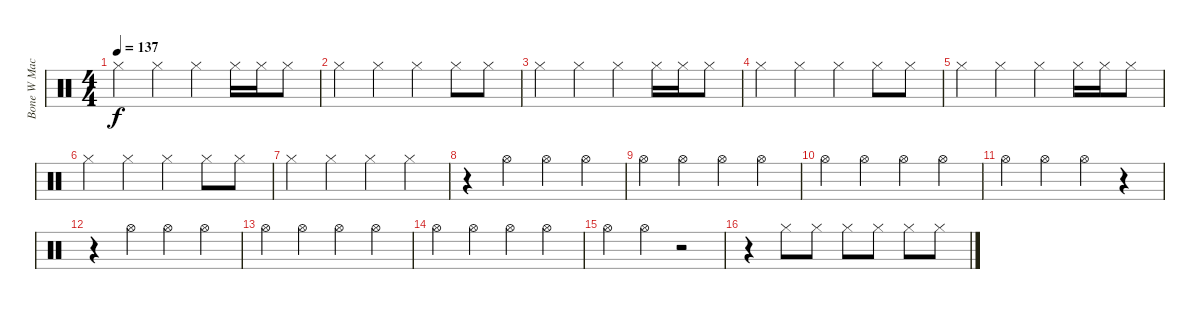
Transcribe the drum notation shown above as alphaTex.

\track ("Bone W Machine Cimbals" "Bone W Mac") {instrument percussion}
\staff {score}
\articulation defaults
\ts (4 4)
\tempo 137
\clef neutral
\ks c "Hi-Hat (closed)".4{dy f} "Hi-Hat (closed)".4 "Hi-Hat (closed)".4 "Hi-Hat (closed)".16 "Hi-Hat (closed)".16 "Hi-Hat (closed)".8
|
"Hi-Hat (closed)".4 "Hi-Hat (closed)".4 "Hi-Hat (closed)".4 "Hi-Hat (closed)".8 "Hi-Hat (closed)".8 |
"Hi-Hat (closed)".4 "Hi-Hat (closed)".4 "Hi-Hat (closed)".4 "Hi-Hat (closed)".16 "Hi-Hat (closed)".16 "Hi-Hat (closed)".8 |
"Hi-Hat (closed)".4 "Hi-Hat (closed)".4 "Hi-Hat (closed)".4 "Hi-Hat (closed)".8 "Hi-Hat (closed)".8 |
"Hi-Hat (closed)".4 "Hi-Hat (closed)".4 "Hi-Hat (closed)".4 "Hi-Hat (closed)".16 "Hi-Hat (closed)".16 "Hi-Hat (closed)".8 |
"Hi-Hat (closed)".4 "Hi-Hat (closed)".4 "Hi-Hat (closed)".4 "Hi-Hat (closed)".8 "Hi-Hat (closed)".8 |
"Hi-Hat (closed)".4 "Hi-Hat (closed)".4 "Hi-Hat (closed)".4 "Hi-Hat (closed)".4 |
r.4 "Hi-Hat (open)".4 "Hi-Hat (open)".4 "Hi-Hat (open)".4 |
"Hi-Hat (open)".4 "Hi-Hat (open)".4 "Hi-Hat (open)".4 "Hi-Hat (open)".4 |
"Hi-Hat (open)".4 "Hi-Hat (open)".4 "Hi-Hat (open)".4 "Hi-Hat (open)".4 |
"Hi-Hat (open)".4 "Hi-Hat (open)".4 "Hi-Hat (open)".4 r.4 |
r.4 "Hi-Hat (open)".4 "Hi-Hat (open)".4 "Hi-Hat (open)".4 |
"Hi-Hat (open)".4 "Hi-Hat (open)".4 "Hi-Hat (open)".4 "Hi-Hat (open)".4 |
"Hi-Hat (open)".4 "Hi-Hat (open)".4 "Hi-Hat (open)".4 "Hi-Hat (open)".4 |
"Hi-Hat (open)".4 "Hi-Hat (open)".4 r.2 |
r.4 "Hi-Hat (closed)".8 "Hi-Hat (closed)".8 "Hi-Hat (closed)".8 "Hi-Hat (closed)".8 "Hi-Hat (closed)".8 "Hi-Hat (closed)".8
